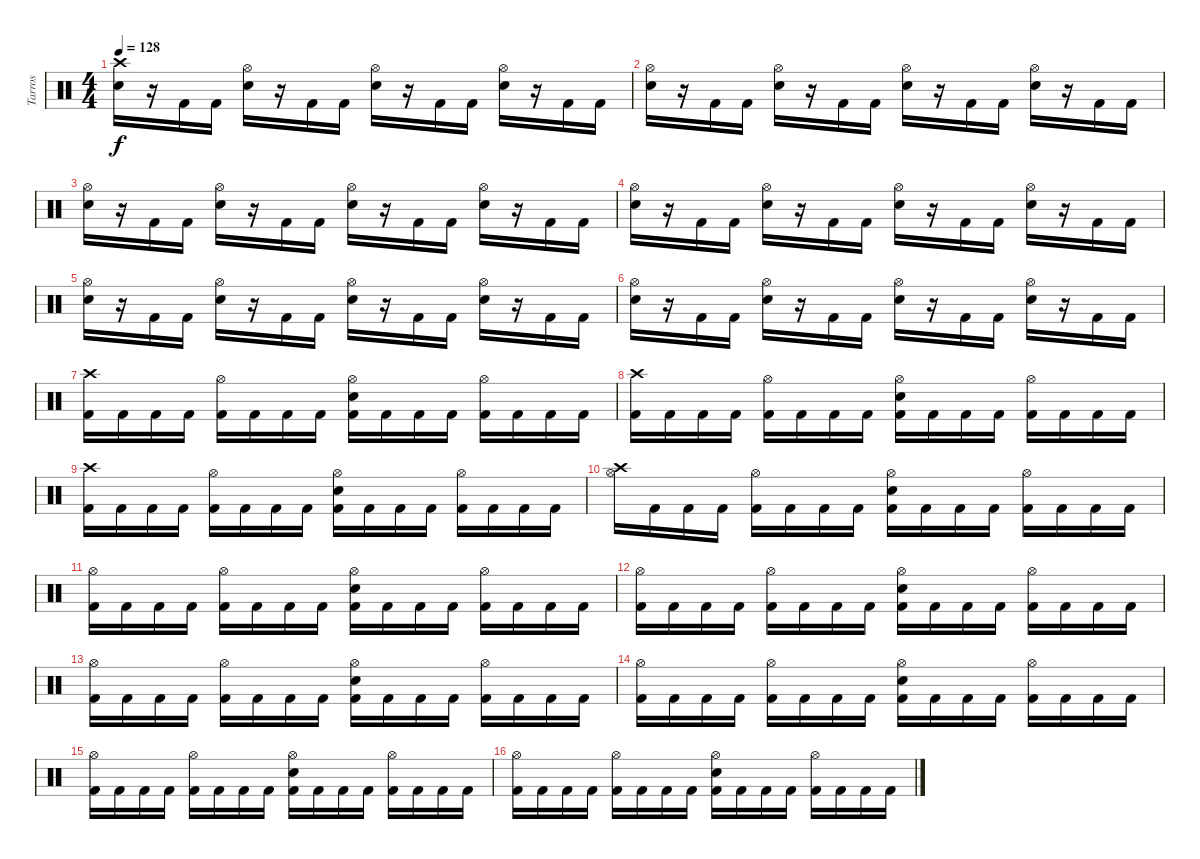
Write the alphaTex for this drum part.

\track ("Tarros" "Tarros") {instrument percussion}
\staff {score}
\articulation defaults
\ts (4 4)
\tempo 128
\clef neutral
\ks c
("Crash high (hit)" "Electric Snare (hit)").16{dy f} r.16 "Kick (hit) 2".16 "Kick (hit) 2".16 ("Hi-Hat (open)" "Electric Snare (hit)").16 r.16 "Kick (hit) 2".16 "Kick (hit) 2".16 ("Hi-Hat (open)" "Electric Snare (hit)").16 r.16 "Kick (hit) 2".16 "Kick (hit) 2".16 ("Hi-Hat (open)" "Electric Snare (hit)").16 r.16 "Kick (hit) 2".16 "Kick (hit) 2".16 |
("Hi-Hat (open)" "Electric Snare (hit)").16 r.16 "Kick (hit) 2".16 "Kick (hit) 2".16 ("Hi-Hat (open)" "Electric Snare (hit)").16 r.16 "Kick (hit) 2".16 "Kick (hit) 2".16 ("Hi-Hat (open)" "Electric Snare (hit)").16 r.16 "Kick (hit) 2".16 "Kick (hit) 2".16 ("Hi-Hat (open)" "Electric Snare (hit)").16 r.16 "Kick (hit) 2".16 "Kick (hit) 2".16 |
("Hi-Hat (open)" "Electric Snare (hit)").16 r.16 "Kick (hit) 2".16 "Kick (hit) 2".16 ("Hi-Hat (open)" "Electric Snare (hit)").16 r.16 "Kick (hit) 2".16 "Kick (hit) 2".16 ("Hi-Hat (open)" "Electric Snare (hit)").16 r.16 "Kick (hit) 2".16 "Kick (hit) 2".16 ("Hi-Hat (open)" "Electric Snare (hit)").16 r.16 "Kick (hit) 2".16 "Kick (hit) 2".16 |
("Hi-Hat (open)" "Electric Snare (hit)").16 r.16 "Kick (hit) 2".16 "Kick (hit) 2".16 ("Hi-Hat (open)" "Electric Snare (hit)").16 r.16 "Kick (hit) 2".16 "Kick (hit) 2".16 ("Hi-Hat (open)" "Electric Snare (hit)").16 r.16 "Kick (hit) 2".16 "Kick (hit) 2".16 ("Hi-Hat (open)" "Electric Snare (hit)").16 r.16 "Kick (hit) 2".16 "Kick (hit) 2".16 |
("Hi-Hat (open)" "Electric Snare (hit)").16 r.16 "Kick (hit) 2".16 "Kick (hit) 2".16 ("Hi-Hat (open)" "Electric Snare (hit)").16 r.16 "Kick (hit) 2".16 "Kick (hit) 2".16 ("Hi-Hat (open)" "Electric Snare (hit)").16 r.16 "Kick (hit) 2".16 "Kick (hit) 2".16 ("Hi-Hat (open)" "Electric Snare (hit)").16 r.16 "Kick (hit) 2".16 "Kick (hit) 2".16 |
("Hi-Hat (open)" "Electric Snare (hit)").16 r.16 "Kick (hit) 2".16 "Kick (hit) 2".16 ("Hi-Hat (open)" "Electric Snare (hit)").16 r.16 "Kick (hit) 2".16 "Kick (hit) 2".16 ("Hi-Hat (open)" "Electric Snare (hit)").16 r.16 "Kick (hit) 2".16 "Kick (hit) 2".16 ("Hi-Hat (open)" "Electric Snare (hit)").16 r.16 "Kick (hit) 2".16 "Kick (hit) 2".16 |
("Crash high (hit)" "Kick (hit) 2").16 "Kick (hit) 2".16 "Kick (hit) 2".16 "Kick (hit) 2".16 ("Hi-Hat (open)" "Kick (hit) 2").16 "Kick (hit) 2".16 "Kick (hit) 2".16 "Kick (hit) 2".16 ("Hi-Hat (open)" "Electric Snare (hit)" "Kick (hit) 2").16 "Kick (hit) 2".16 "Kick (hit) 2".16 "Kick (hit) 2".16 ("Hi-Hat (open)" "Kick (hit) 2").16 "Kick (hit) 2".16 "Kick (hit) 2".16 "Kick (hit) 2".16 |
("Crash high (hit)" "Kick (hit) 2").16 "Kick (hit) 2".16 "Kick (hit) 2".16 "Kick (hit) 2".16 ("Hi-Hat (open)" "Kick (hit) 2").16 "Kick (hit) 2".16 "Kick (hit) 2".16 "Kick (hit) 2".16 ("Hi-Hat (open)" "Electric Snare (hit)" "Kick (hit) 2").16 "Kick (hit) 2".16 "Kick (hit) 2".16 "Kick (hit) 2".16 ("Hi-Hat (open)" "Kick (hit) 2").16 "Kick (hit) 2".16 "Kick (hit) 2".16 "Kick (hit) 2".16 |
("Crash high (hit)" "Kick (hit) 2").16 "Kick (hit) 2".16 "Kick (hit) 2".16 "Kick (hit) 2".16 ("Hi-Hat (open)" "Kick (hit) 2").16 "Kick (hit) 2".16 "Kick (hit) 2".16 "Kick (hit) 2".16 ("Hi-Hat (open)" "Electric Snare (hit)" "Kick (hit) 2").16 "Kick (hit) 2".16 "Kick (hit) 2".16 "Kick (hit) 2".16 ("Hi-Hat (open)" "Kick (hit) 2").16 "Kick (hit) 2".16 "Kick (hit) 2".16 "Kick (hit) 2".16 |
("Crash high (hit)" "Hi-Hat (open)").16 "Kick (hit) 2".16 "Kick (hit) 2".16 "Kick (hit) 2".16 ("Hi-Hat (open)" "Kick (hit) 2").16 "Kick (hit) 2".16 "Kick (hit) 2".16 "Kick (hit) 2".16 ("Hi-Hat (open)" "Electric Snare (hit)" "Kick (hit) 2").16 "Kick (hit) 2".16 "Kick (hit) 2".16 "Kick (hit) 2".16 ("Hi-Hat (open)" "Kick (hit) 2").16 "Kick (hit) 2".16 "Kick (hit) 2".16 "Kick (hit) 2".16 |
("Hi-Hat (open)" "Kick (hit) 2").16 "Kick (hit) 2".16 "Kick (hit) 2".16 "Kick (hit) 2".16 ("Hi-Hat (open)" "Kick (hit) 2").16 "Kick (hit) 2".16 "Kick (hit) 2".16 "Kick (hit) 2".16 ("Hi-Hat (open)" "Electric Snare (hit)" "Kick (hit) 2").16 "Kick (hit) 2".16 "Kick (hit) 2".16 "Kick (hit) 2".16 ("Hi-Hat (open)" "Kick (hit) 2").16 "Kick (hit) 2".16 "Kick (hit) 2".16 "Kick (hit) 2".16 |
("Hi-Hat (open)" "Kick (hit) 2").16 "Kick (hit) 2".16 "Kick (hit) 2".16 "Kick (hit) 2".16 ("Hi-Hat (open)" "Kick (hit) 2").16 "Kick (hit) 2".16 "Kick (hit) 2".16 "Kick (hit) 2".16 ("Hi-Hat (open)" "Electric Snare (hit)" "Kick (hit) 2").16 "Kick (hit) 2".16 "Kick (hit) 2".16 "Kick (hit) 2".16 ("Hi-Hat (open)" "Kick (hit) 2").16 "Kick (hit) 2".16 "Kick (hit) 2".16 "Kick (hit) 2".16 |
("Hi-Hat (open)" "Kick (hit) 2").16 "Kick (hit) 2".16 "Kick (hit) 2".16 "Kick (hit) 2".16 ("Hi-Hat (open)" "Kick (hit) 2").16 "Kick (hit) 2".16 "Kick (hit) 2".16 "Kick (hit) 2".16 ("Hi-Hat (open)" "Electric Snare (hit)" "Kick (hit) 2").16 "Kick (hit) 2".16 "Kick (hit) 2".16 "Kick (hit) 2".16 ("Hi-Hat (open)" "Kick (hit) 2").16 "Kick (hit) 2".16 "Kick (hit) 2".16 "Kick (hit) 2".16 |
("Hi-Hat (open)" "Kick (hit) 2").16 "Kick (hit) 2".16 "Kick (hit) 2".16 "Kick (hit) 2".16 ("Hi-Hat (open)" "Kick (hit) 2").16 "Kick (hit) 2".16 "Kick (hit) 2".16 "Kick (hit) 2".16 ("Hi-Hat (open)" "Electric Snare (hit)" "Kick (hit) 2").16 "Kick (hit) 2".16 "Kick (hit) 2".16 "Kick (hit) 2".16 ("Hi-Hat (open)" "Kick (hit) 2").16 "Kick (hit) 2".16 "Kick (hit) 2".16 "Kick (hit) 2".16 |
("Hi-Hat (open)" "Kick (hit) 2").16 "Kick (hit) 2".16 "Kick (hit) 2".16 "Kick (hit) 2".16 ("Hi-Hat (open)" "Kick (hit) 2").16 "Kick (hit) 2".16 "Kick (hit) 2".16 "Kick (hit) 2".16 ("Hi-Hat (open)" "Electric Snare (hit)" "Kick (hit) 2").16 "Kick (hit) 2".16 "Kick (hit) 2".16 "Kick (hit) 2".16 ("Hi-Hat (open)" "Kick (hit) 2").16 "Kick (hit) 2".16 "Kick (hit) 2".16 "Kick (hit) 2".16 |
("Hi-Hat (open)" "Kick (hit) 2").16 "Kick (hit) 2".16 "Kick (hit) 2".16 "Kick (hit) 2".16 ("Hi-Hat (open)" "Kick (hit) 2").16 "Kick (hit) 2".16 "Kick (hit) 2".16 "Kick (hit) 2".16 ("Hi-Hat (open)" "Electric Snare (hit)" "Kick (hit) 2").16 "Kick (hit) 2".16 "Kick (hit) 2".16 "Kick (hit) 2".16 ("Hi-Hat (open)" "Kick (hit) 2").16 "Kick (hit) 2".16 "Kick (hit) 2".16 "Kick (hit) 2".16
